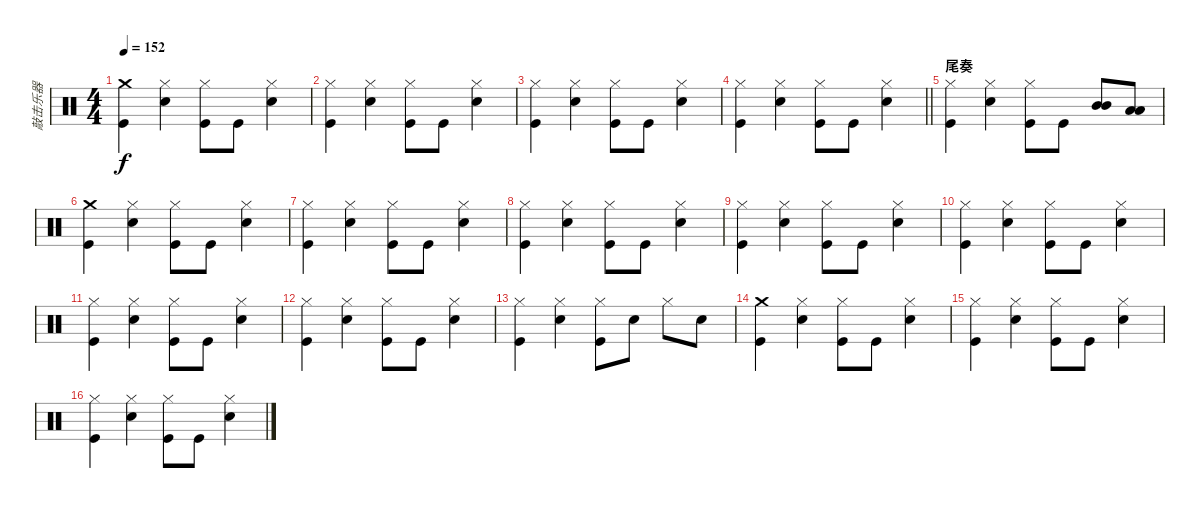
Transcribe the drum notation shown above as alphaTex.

\track ("敲击乐器" "敲击乐器") {instrument percussion}
\staff {score}
\articulation defaults
\ts (4 4)
\tempo 152
\clef neutral
\ks c
("Crash medium (hit)" "Kick (hit)").4{dy f} ("Hi-Hat (closed)" "Electric Snare (hit)").4 ("Hi-Hat (closed)" "Kick (hit)").8 "Kick (hit)".8 ("Hi-Hat (closed)" "Electric Snare (hit)").4 |
("Hi-Hat (closed)" "Kick (hit)").4 ("Hi-Hat (closed)" "Electric Snare (hit)").4 ("Hi-Hat (closed)" "Kick (hit)").8 "Kick (hit)".8 ("Hi-Hat (closed)" "Electric Snare (hit)").4 |
("Hi-Hat (closed)" "Kick (hit)").4 ("Hi-Hat (closed)" "Electric Snare (hit)").4 ("Hi-Hat (closed)" "Kick (hit)").8 "Kick (hit)".8 ("Hi-Hat (closed)" "Electric Snare (hit)").4 |
\barLineRight lightlight
("Hi-Hat (closed)" "Kick (hit)").4 ("Hi-Hat (closed)" "Electric Snare (hit)").4 ("Hi-Hat (closed)" "Kick (hit)").8 "Kick (hit)".8 ("Hi-Hat (closed)" "Electric Snare (hit)").4 |
\section ("" "尾奏")
("Hi-Hat (closed)" "Kick (hit)").4 ("Hi-Hat (closed)" "Electric Snare (hit)").4 ("Hi-Hat (closed)" "Kick (hit)").8 "Kick (hit)".8 ("Mid Tom (hit)" "Mid Tom (hit)").8 ("Low Tom (hit)" "Low Tom (hit)").8 |
("Crash medium (hit)" "Kick (hit)").4 ("Hi-Hat (closed)" "Electric Snare (hit)").4 ("Hi-Hat (closed)" "Kick (hit)").8 "Kick (hit)".8 ("Hi-Hat (closed)" "Electric Snare (hit)").4 |
("Hi-Hat (closed)" "Kick (hit)").4 ("Hi-Hat (closed)" "Electric Snare (hit)").4 ("Hi-Hat (closed)" "Kick (hit)").8 "Kick (hit)".8 ("Hi-Hat (closed)" "Electric Snare (hit)").4 |
("Hi-Hat (closed)" "Kick (hit)").4 ("Hi-Hat (closed)" "Electric Snare (hit)").4 ("Hi-Hat (closed)" "Kick (hit)").8 "Kick (hit)".8 ("Hi-Hat (closed)" "Electric Snare (hit)").4 |
("Hi-Hat (closed)" "Kick (hit)").4 ("Hi-Hat (closed)" "Electric Snare (hit)").4 ("Hi-Hat (closed)" "Kick (hit)").8 "Kick (hit)".8 ("Hi-Hat (closed)" "Electric Snare (hit)").4 |
("Hi-Hat (closed)" "Kick (hit)").4 ("Hi-Hat (closed)" "Electric Snare (hit)").4 ("Hi-Hat (closed)" "Kick (hit)").8 "Kick (hit)".8 ("Hi-Hat (closed)" "Electric Snare (hit)").4 |
("Hi-Hat (closed)" "Kick (hit)").4 ("Hi-Hat (closed)" "Electric Snare (hit)").4 ("Hi-Hat (closed)" "Kick (hit)").8 "Kick (hit)".8 ("Hi-Hat (closed)" "Electric Snare (hit)").4 |
("Hi-Hat (closed)" "Kick (hit)").4 ("Hi-Hat (closed)" "Electric Snare (hit)").4 ("Hi-Hat (closed)" "Kick (hit)").8 "Kick (hit)".8 ("Hi-Hat (closed)" "Electric Snare (hit)").4 |
("Hi-Hat (closed)" "Kick (hit)").4 ("Hi-Hat (closed)" "Electric Snare (hit)").4 ("Hi-Hat (closed)" "Kick (hit)").8 "Electric Snare (hit)".8 "Hi-Hat (closed)".8 "Electric Snare (hit)".8 |
("Crash medium (hit)" "Kick (hit)").4 ("Hi-Hat (closed)" "Electric Snare (hit)").4 ("Hi-Hat (closed)" "Kick (hit)").8 "Kick (hit)".8 ("Hi-Hat (closed)" "Electric Snare (hit)").4 |
("Hi-Hat (closed)" "Kick (hit)").4 ("Hi-Hat (closed)" "Electric Snare (hit)").4 ("Hi-Hat (closed)" "Kick (hit)").8 "Kick (hit)".8 ("Hi-Hat (closed)" "Electric Snare (hit)").4 |
("Hi-Hat (closed)" "Kick (hit)").4 ("Hi-Hat (closed)" "Electric Snare (hit)").4 ("Hi-Hat (closed)" "Kick (hit)").8 "Kick (hit)".8 ("Hi-Hat (closed)" "Electric Snare (hit)").4
